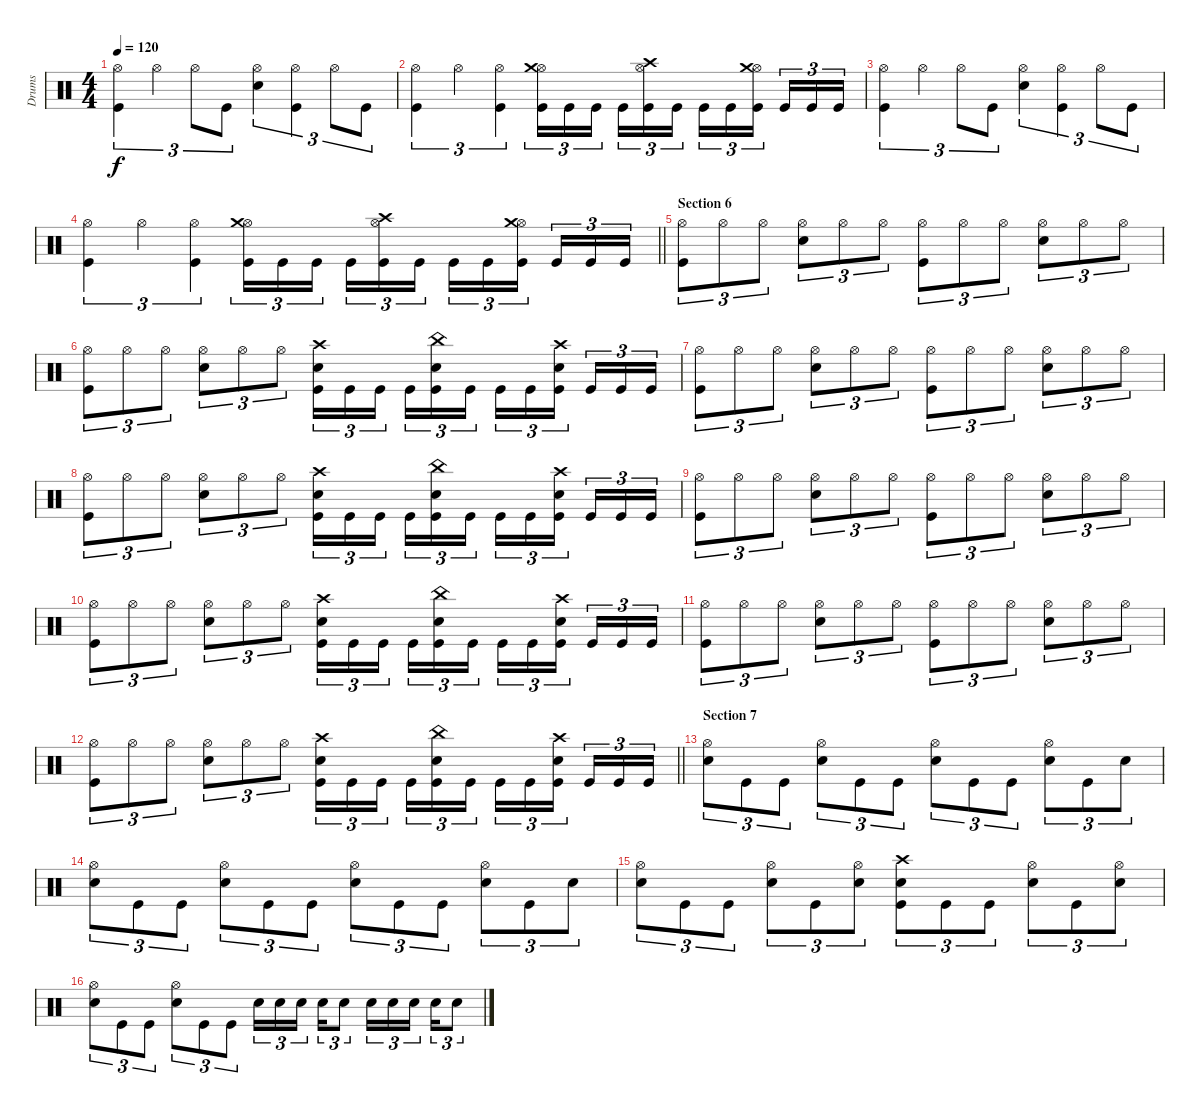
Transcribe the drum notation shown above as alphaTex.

\track ("Drums" "Drums") {instrument percussion}
\staff {score}
\articulation defaults
\ts (4 4)
\tempo 120
\clef neutral
\ks c
("Hi-Hat (open)" "Kick (hit)").4{tu (3 2) dy f} "Hi-Hat (open)".4{tu (3 2)} "Hi-Hat (open)".8{tu (3 2)} "Kick (hit)".8{tu (3 2)} ("Hi-Hat (open)" "Snare (hit) 2").4{tu (3 2)} ("Hi-Hat (open)" "Kick (hit)").4{tu (3 2)} "Hi-Hat (open)".8{tu (3 2)} "Kick (hit)".8{tu (3 2)} |
("Hi-Hat (open)" "Kick (hit)").4{tu (3 2)} "Hi-Hat (open)".4{tu (3 2)} ("Hi-Hat (open)" "Kick (hit)").4{tu (3 2)} ("Hi-Hat (open)" "Crash medium (hit)" "Kick (hit)").16{tu (3 2)} "Kick (hit)".16{tu (3 2)} "Kick (hit)".16{tu (3 2) beam splitsecondary} "Kick (hit)".16{tu (3 2)} ("Hi-Hat (open)" "Crash high (hit)" "Kick (hit)").16{tu (3 2)} "Kick (hit)".16{tu (3 2)} "Kick (hit)".16{tu (3 2)} "Kick (hit)".16{tu (3 2)} ("Hi-Hat (open)" "Crash medium (hit)" "Kick (hit)").16{tu (3 2) beam splitsecondary} "Kick (hit)".16{tu (3 2)} "Kick (hit)".16{tu (3 2)} "Kick (hit)".16{tu (3 2)} |
("Hi-Hat (open)" "Kick (hit)").4{tu (3 2)} "Hi-Hat (open)".4{tu (3 2)} "Hi-Hat (open)".8{tu (3 2)} "Kick (hit)".8{tu (3 2)} ("Hi-Hat (open)" "Snare (hit) 2").4{tu (3 2)} ("Hi-Hat (open)" "Kick (hit)").4{tu (3 2)} "Hi-Hat (open)".8{tu (3 2)} "Kick (hit)".8{tu (3 2)} |
\barLineRight lightlight
("Hi-Hat (open)" "Kick (hit)").4{tu (3 2)} "Hi-Hat (open)".4{tu (3 2)} ("Hi-Hat (open)" "Kick (hit)").4{tu (3 2)} ("Hi-Hat (open)" "Crash medium (hit)" "Kick (hit)").16{tu (3 2)} "Kick (hit)".16{tu (3 2)} "Kick (hit)".16{tu (3 2) beam splitsecondary} "Kick (hit)".16{tu (3 2)} ("Hi-Hat (open)" "Crash high (hit)" "Kick (hit)").16{tu (3 2)} "Kick (hit)".16{tu (3 2)} "Kick (hit)".16{tu (3 2)} "Kick (hit)".16{tu (3 2)} ("Hi-Hat (open)" "Crash medium (hit)" "Kick (hit)").16{tu (3 2) beam splitsecondary} "Kick (hit)".16{tu (3 2)} "Kick (hit)".16{tu (3 2)} "Kick (hit)".16{tu (3 2)} |
\section ("" "Section 6")
("Hi-Hat (open)" "Kick (hit)").8{tu (3 2)} "Hi-Hat (open)".8{tu (3 2)} "Hi-Hat (open)".8{tu (3 2)} ("Hi-Hat (open)" "Snare (hit) 2").8{tu (3 2)} "Hi-Hat (open)".8{tu (3 2)} "Hi-Hat (open)".8{tu (3 2)} ("Hi-Hat (open)" "Kick (hit)").8{tu (3 2)} "Hi-Hat (open)".8{tu (3 2)} "Hi-Hat (open)".8{tu (3 2)} ("Hi-Hat (open)" "Snare (hit) 2").8{tu (3 2)} "Hi-Hat (open)".8{tu (3 2)} "Hi-Hat (open)".8{tu (3 2)} |
("Hi-Hat (open)" "Kick (hit)").8{tu (3 2)} "Hi-Hat (open)".8{tu (3 2)} "Hi-Hat (open)".8{tu (3 2)} ("Hi-Hat (open)" "Snare (hit) 2").8{tu (3 2)} "Hi-Hat (open)".8{tu (3 2)} "Hi-Hat (open)".8{tu (3 2)} ("Crash high (hit)" "Snare (hit) 2" "Kick (hit)").16{tu (3 2)} "Kick (hit)".16{tu (3 2)} "Kick (hit)".16{tu (3 2) beam splitsecondary} "Kick (hit)".16{tu (3 2)} ("China (hit)" "Snare (hit) 2" "Kick (hit)").16{tu (3 2)} "Kick (hit)".16{tu (3 2)} "Kick (hit)".16{tu (3 2)} "Kick (hit)".16{tu (3 2)} ("Crash high (hit)" "Snare (hit) 2" "Kick (hit)").16{tu (3 2) beam splitsecondary} "Kick (hit)".16{tu (3 2)} "Kick (hit)".16{tu (3 2)} "Kick (hit)".16{tu (3 2)} |
("Hi-Hat (open)" "Kick (hit)").8{tu (3 2)} "Hi-Hat (open)".8{tu (3 2)} "Hi-Hat (open)".8{tu (3 2)} ("Hi-Hat (open)" "Snare (hit) 2").8{tu (3 2)} "Hi-Hat (open)".8{tu (3 2)} "Hi-Hat (open)".8{tu (3 2)} ("Hi-Hat (open)" "Kick (hit)").8{tu (3 2)} "Hi-Hat (open)".8{tu (3 2)} "Hi-Hat (open)".8{tu (3 2)} ("Hi-Hat (open)" "Snare (hit) 2").8{tu (3 2)} "Hi-Hat (open)".8{tu (3 2)} "Hi-Hat (open)".8{tu (3 2)} |
("Hi-Hat (open)" "Kick (hit)").8{tu (3 2)} "Hi-Hat (open)".8{tu (3 2)} "Hi-Hat (open)".8{tu (3 2)} ("Hi-Hat (open)" "Snare (hit) 2").8{tu (3 2)} "Hi-Hat (open)".8{tu (3 2)} "Hi-Hat (open)".8{tu (3 2)} ("Crash high (hit)" "Snare (hit) 2" "Kick (hit)").16{tu (3 2)} "Kick (hit)".16{tu (3 2)} "Kick (hit)".16{tu (3 2) beam splitsecondary} "Kick (hit)".16{tu (3 2)} ("China (hit)" "Snare (hit) 2" "Kick (hit)").16{tu (3 2)} "Kick (hit)".16{tu (3 2)} "Kick (hit)".16{tu (3 2)} "Kick (hit)".16{tu (3 2)} ("Crash high (hit)" "Snare (hit) 2" "Kick (hit)").16{tu (3 2) beam splitsecondary} "Kick (hit)".16{tu (3 2)} "Kick (hit)".16{tu (3 2)} "Kick (hit)".16{tu (3 2)} |
("Hi-Hat (open)" "Kick (hit)").8{tu (3 2)} "Hi-Hat (open)".8{tu (3 2)} "Hi-Hat (open)".8{tu (3 2)} ("Hi-Hat (open)" "Snare (hit) 2").8{tu (3 2)} "Hi-Hat (open)".8{tu (3 2)} "Hi-Hat (open)".8{tu (3 2)} ("Hi-Hat (open)" "Kick (hit)").8{tu (3 2)} "Hi-Hat (open)".8{tu (3 2)} "Hi-Hat (open)".8{tu (3 2)} ("Hi-Hat (open)" "Snare (hit) 2").8{tu (3 2)} "Hi-Hat (open)".8{tu (3 2)} "Hi-Hat (open)".8{tu (3 2)} |
("Hi-Hat (open)" "Kick (hit)").8{tu (3 2)} "Hi-Hat (open)".8{tu (3 2)} "Hi-Hat (open)".8{tu (3 2)} ("Hi-Hat (open)" "Snare (hit) 2").8{tu (3 2)} "Hi-Hat (open)".8{tu (3 2)} "Hi-Hat (open)".8{tu (3 2)} ("Crash high (hit)" "Snare (hit) 2" "Kick (hit)").16{tu (3 2)} "Kick (hit)".16{tu (3 2)} "Kick (hit)".16{tu (3 2) beam splitsecondary} "Kick (hit)".16{tu (3 2)} ("China (hit)" "Snare (hit) 2" "Kick (hit)").16{tu (3 2)} "Kick (hit)".16{tu (3 2)} "Kick (hit)".16{tu (3 2)} "Kick (hit)".16{tu (3 2)} ("Crash high (hit)" "Snare (hit) 2" "Kick (hit)").16{tu (3 2) beam splitsecondary} "Kick (hit)".16{tu (3 2)} "Kick (hit)".16{tu (3 2)} "Kick (hit)".16{tu (3 2)} |
("Hi-Hat (open)" "Kick (hit)").8{tu (3 2)} "Hi-Hat (open)".8{tu (3 2)} "Hi-Hat (open)".8{tu (3 2)} ("Hi-Hat (open)" "Snare (hit) 2").8{tu (3 2)} "Hi-Hat (open)".8{tu (3 2)} "Hi-Hat (open)".8{tu (3 2)} ("Hi-Hat (open)" "Kick (hit)").8{tu (3 2)} "Hi-Hat (open)".8{tu (3 2)} "Hi-Hat (open)".8{tu (3 2)} ("Hi-Hat (open)" "Snare (hit) 2").8{tu (3 2)} "Hi-Hat (open)".8{tu (3 2)} "Hi-Hat (open)".8{tu (3 2)} |
\barLineRight lightlight
("Hi-Hat (open)" "Kick (hit)").8{tu (3 2)} "Hi-Hat (open)".8{tu (3 2)} "Hi-Hat (open)".8{tu (3 2)} ("Hi-Hat (open)" "Snare (hit) 2").8{tu (3 2)} "Hi-Hat (open)".8{tu (3 2)} "Hi-Hat (open)".8{tu (3 2)} ("Crash high (hit)" "Snare (hit) 2" "Kick (hit)").16{tu (3 2)} "Kick (hit)".16{tu (3 2)} "Kick (hit)".16{tu (3 2) beam splitsecondary} "Kick (hit)".16{tu (3 2)} ("China (hit)" "Snare (hit) 2" "Kick (hit)").16{tu (3 2)} "Kick (hit)".16{tu (3 2)} "Kick (hit)".16{tu (3 2)} "Kick (hit)".16{tu (3 2)} ("Crash high (hit)" "Snare (hit) 2" "Kick (hit)").16{tu (3 2) beam splitsecondary} "Kick (hit)".16{tu (3 2)} "Kick (hit)".16{tu (3 2)} "Kick (hit)".16{tu (3 2)} |
\section ("" "Section 7")
("Hi-Hat (open)" "Snare (hit) 2").8{tu (3 2)} "Kick (hit)".8{tu (3 2)} "Kick (hit)".8{tu (3 2)} ("Hi-Hat (open)" "Snare (hit) 2").8{tu (3 2)} "Kick (hit)".8{tu (3 2)} "Kick (hit)".8{tu (3 2)} ("Hi-Hat (open)" "Snare (hit) 2").8{tu (3 2)} "Kick (hit)".8{tu (3 2)} "Kick (hit)".8{tu (3 2)} ("Hi-Hat (open)" "Snare (hit) 2").8{tu (3 2)} "Kick (hit)".8{tu (3 2)} "Snare (hit) 2".8{tu (3 2)} |
("Hi-Hat (open)" "Snare (hit) 2").8{tu (3 2)} "Kick (hit)".8{tu (3 2)} "Kick (hit)".8{tu (3 2)} ("Hi-Hat (open)" "Snare (hit) 2").8{tu (3 2)} "Kick (hit)".8{tu (3 2)} "Kick (hit)".8{tu (3 2)} ("Hi-Hat (open)" "Snare (hit) 2").8{tu (3 2)} "Kick (hit)".8{tu (3 2)} "Kick (hit)".8{tu (3 2)} ("Hi-Hat (open)" "Snare (hit) 2").8{tu (3 2)} "Kick (hit)".8{tu (3 2)} "Snare (hit) 2".8{tu (3 2)} |
("Hi-Hat (open)" "Snare (hit) 2").8{tu (3 2)} "Kick (hit)".8{tu (3 2)} "Kick (hit)".8{tu (3 2)} ("Hi-Hat (open)" "Snare (hit) 2").8{tu (3 2)} "Kick (hit)".8{tu (3 2)} ("Hi-Hat (open)" "Snare (hit) 2").8{tu (3 2)} ("Crash high (hit)" "Snare (hit) 2" "Kick (hit)").8{tu (3 2)} "Kick (hit)".8{tu (3 2)} "Kick (hit)".8{tu (3 2)} ("Hi-Hat (open)" "Snare (hit) 2").8{tu (3 2)} "Kick (hit)".8{tu (3 2)} ("Hi-Hat (open)" "Snare (hit) 2").8{tu (3 2)} |
("Hi-Hat (open)" "Snare (hit) 2").8{tu (3 2)} "Kick (hit)".8{tu (3 2)} "Kick (hit)".8{tu (3 2)} ("Hi-Hat (open)" "Snare (hit) 2").8{tu (3 2)} "Kick (hit)".8{tu (3 2)} "Kick (hit)".8{tu (3 2)} "Snare (hit) 2".16{tu (3 2)} "Snare (hit) 2".16{tu (3 2)} "Snare (hit) 2".16{tu (3 2) beam splitsecondary} "Snare (hit) 2".16{tu (3 2)} "Snare (hit) 2".8{tu (3 2)} "Snare (hit) 2".16{tu (3 2)} "Snare (hit) 2".16{tu (3 2)} "Snare (hit) 2".16{tu (3 2) beam splitsecondary} "Snare (hit) 2".16{tu (3 2)} "Snare (hit) 2".8{tu (3 2)}
